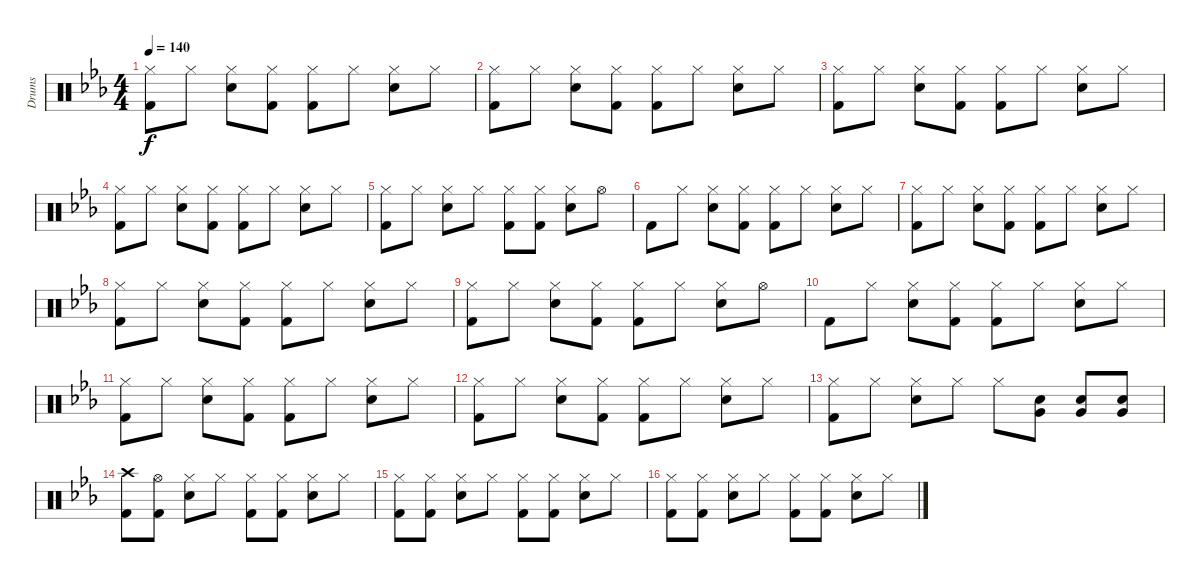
\track ("Drums" "Drums") {instrument percussion}
\staff {score}
\articulation defaults
\ts (4 4)
\tempo 140
\clef neutral
\ks eb
("Hi-Hat (closed)" "Kick (hit) 2").8{dy f} "Hi-Hat (closed)".8 ("Hi-Hat (closed)" "Electric Snare (hit)").8 ("Hi-Hat (closed)" "Kick (hit) 2").8 ("Hi-Hat (closed)" "Kick (hit) 2").8 "Hi-Hat (closed)".8 ("Hi-Hat (closed)" "Electric Snare (hit)").8 "Hi-Hat (closed)".8 |
("Hi-Hat (closed)" "Kick (hit) 2").8 "Hi-Hat (closed)".8 ("Hi-Hat (closed)" "Electric Snare (hit)").8 ("Hi-Hat (closed)" "Kick (hit) 2").8 ("Hi-Hat (closed)" "Kick (hit) 2").8 "Hi-Hat (closed)".8 ("Hi-Hat (closed)" "Electric Snare (hit)").8 "Hi-Hat (closed)".8 |
("Hi-Hat (closed)" "Kick (hit) 2").8 "Hi-Hat (closed)".8 ("Hi-Hat (closed)" "Electric Snare (hit)").8 ("Hi-Hat (closed)" "Kick (hit) 2").8 ("Hi-Hat (closed)" "Kick (hit) 2").8 "Hi-Hat (closed)".8 ("Hi-Hat (closed)" "Electric Snare (hit)").8 "Hi-Hat (closed)".8 |
("Hi-Hat (closed)" "Kick (hit) 2").8 "Hi-Hat (closed)".8 ("Hi-Hat (closed)" "Electric Snare (hit)").8 ("Hi-Hat (closed)" "Kick (hit) 2").8 ("Hi-Hat (closed)" "Kick (hit) 2").8 "Hi-Hat (closed)".8 ("Hi-Hat (closed)" "Electric Snare (hit)").8 "Hi-Hat (closed)".8 |
("Hi-Hat (closed)" "Kick (hit) 2").8 "Hi-Hat (closed)".8 ("Hi-Hat (closed)" "Electric Snare (hit)").8 "Hi-Hat (closed)".8 ("Hi-Hat (closed)" "Kick (hit) 2").8 ("Hi-Hat (closed)" "Kick (hit) 2").8 ("Hi-Hat (closed)" "Electric Snare (hit)").8 "Hi-Hat (open)".8 |
"Kick (hit) 2".8 "Hi-Hat (closed)".8 ("Hi-Hat (closed)" "Electric Snare (hit)").8 ("Hi-Hat (closed)" "Kick (hit) 2").8 ("Hi-Hat (closed)" "Kick (hit) 2").8 "Hi-Hat (closed)".8 ("Hi-Hat (closed)" "Electric Snare (hit)").8 "Hi-Hat (closed)".8 |
("Hi-Hat (closed)" "Kick (hit) 2").8 "Hi-Hat (closed)".8 ("Hi-Hat (closed)" "Electric Snare (hit)").8 ("Hi-Hat (closed)" "Kick (hit) 2").8 ("Hi-Hat (closed)" "Kick (hit) 2").8 "Hi-Hat (closed)".8 ("Hi-Hat (closed)" "Electric Snare (hit)").8 "Hi-Hat (closed)".8 |
("Hi-Hat (closed)" "Kick (hit) 2").8 "Hi-Hat (closed)".8 ("Hi-Hat (closed)" "Electric Snare (hit)").8 ("Hi-Hat (closed)" "Kick (hit) 2").8 ("Hi-Hat (closed)" "Kick (hit) 2").8 "Hi-Hat (closed)".8 ("Hi-Hat (closed)" "Electric Snare (hit)").8 "Hi-Hat (closed)".8 |
("Hi-Hat (closed)" "Kick (hit) 2").8 "Hi-Hat (closed)".8 ("Hi-Hat (closed)" "Electric Snare (hit)").8 ("Hi-Hat (closed)" "Kick (hit) 2").8 ("Hi-Hat (closed)" "Kick (hit) 2").8 "Hi-Hat (closed)".8 ("Hi-Hat (closed)" "Electric Snare (hit)").8 "Hi-Hat (open)".8 |
"Kick (hit) 2".8 "Hi-Hat (closed)".8 ("Hi-Hat (closed)" "Electric Snare (hit)").8 ("Hi-Hat (closed)" "Kick (hit) 2").8 ("Hi-Hat (closed)" "Kick (hit) 2").8 "Hi-Hat (closed)".8 ("Hi-Hat (closed)" "Electric Snare (hit)").8 "Hi-Hat (closed)".8 |
("Hi-Hat (closed)" "Kick (hit) 2").8 "Hi-Hat (closed)".8 ("Hi-Hat (closed)" "Electric Snare (hit)").8 ("Hi-Hat (closed)" "Kick (hit) 2").8 ("Hi-Hat (closed)" "Kick (hit) 2").8 "Hi-Hat (closed)".8 ("Hi-Hat (closed)" "Electric Snare (hit)").8 "Hi-Hat (closed)".8 |
("Hi-Hat (closed)" "Kick (hit) 2").8 "Hi-Hat (closed)".8 ("Hi-Hat (closed)" "Electric Snare (hit)").8 ("Hi-Hat (closed)" "Kick (hit) 2").8 ("Hi-Hat (closed)" "Kick (hit) 2").8 "Hi-Hat (closed)".8 ("Hi-Hat (closed)" "Electric Snare (hit)").8 "Hi-Hat (closed)".8 |
("Hi-Hat (closed)" "Kick (hit) 2").8 "Hi-Hat (closed)".8 ("Hi-Hat (closed)" "Electric Snare (hit)").8 "Hi-Hat (closed)".8 "Hi-Hat (closed)".8 ("Electric Snare (hit)" "Very Low Tom (hit)").8 ("Electric Snare (hit)" "Very Low Tom (hit)").8 ("Electric Snare (hit)" "Very Low Tom (hit)").8 |
("Crash high (hit)" "Kick (hit) 2").8 ("Hi-Hat (open)" "Kick (hit) 2").8 ("Hi-Hat (closed)" "Electric Snare (hit)").8 "Hi-Hat (closed)".8 ("Hi-Hat (closed)" "Kick (hit) 2").8 ("Hi-Hat (closed)" "Kick (hit) 2").8 ("Hi-Hat (closed)" "Electric Snare (hit)").8 "Hi-Hat (closed)".8 |
("Hi-Hat (closed)" "Kick (hit) 2").8 ("Hi-Hat (closed)" "Kick (hit) 2").8 ("Hi-Hat (closed)" "Electric Snare (hit)").8 "Hi-Hat (closed)".8 ("Hi-Hat (closed)" "Kick (hit) 2").8 ("Hi-Hat (closed)" "Kick (hit) 2").8 ("Hi-Hat (closed)" "Electric Snare (hit)").8 "Hi-Hat (closed)".8 |
("Hi-Hat (closed)" "Kick (hit) 2").8 ("Hi-Hat (closed)" "Kick (hit) 2").8 ("Hi-Hat (closed)" "Electric Snare (hit)").8 "Hi-Hat (closed)".8 ("Hi-Hat (closed)" "Kick (hit) 2").8 ("Hi-Hat (closed)" "Kick (hit) 2").8 ("Hi-Hat (closed)" "Electric Snare (hit)").8 "Hi-Hat (closed)".8
